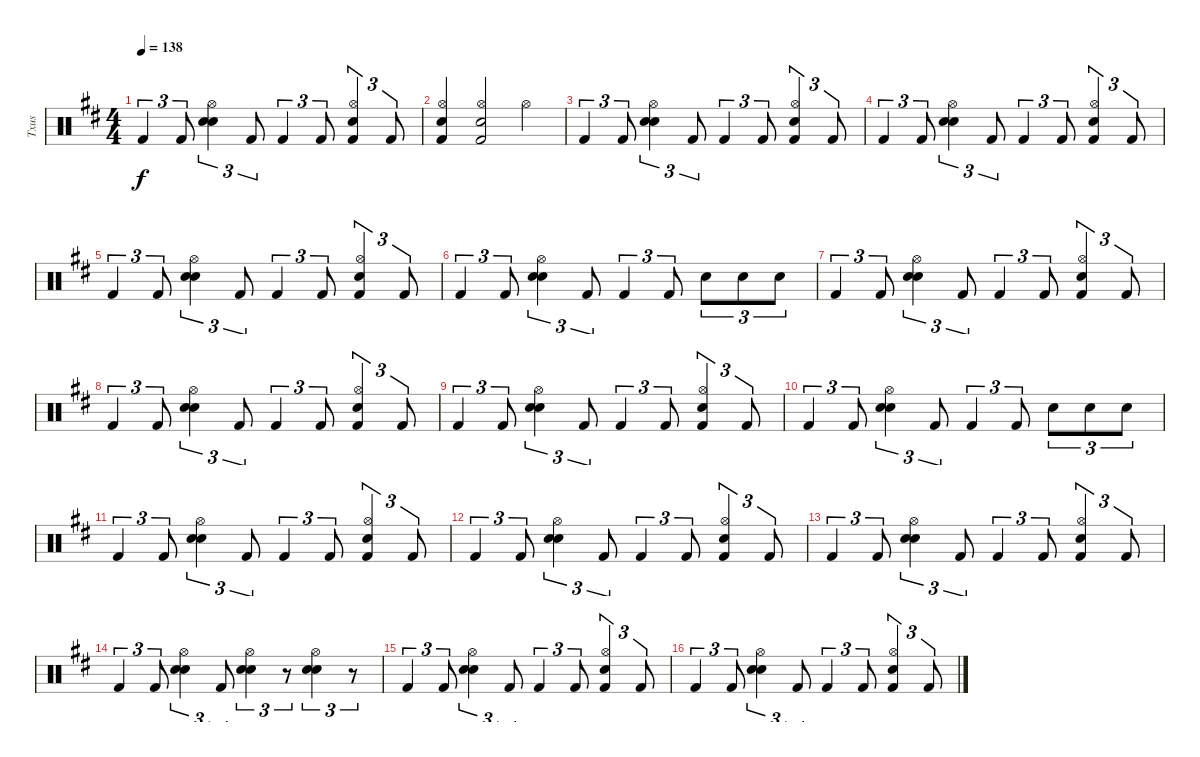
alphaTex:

\track ("Txus" "Txus") {instrument percussion}
\staff {score}
\articulation defaults
\ts (4 4)
\tempo 138
\clef neutral
\ks d "Kick (hit) 2".4{tu (3 2) dy f} "Kick (hit) 2".8{tu (3 2)}
("Hi-Hat (open)" "Electric Snare (hit)" "Snare (hit) 2").4{tu (3 2)} "Kick (hit) 2".8{tu (3 2)} "Kick (hit) 2".4{tu (3 2)} "Kick (hit) 2".8{tu (3 2)} ("Hi-Hat (open)" "Electric Snare (hit)" "Kick (hit) 2").4{tu (3 2)} "Kick (hit) 2".8{tu (3 2)} |
("Hi-Hat (open)" "Electric Snare (hit)" "Kick (hit) 2").4 ("Hi-Hat (open)" "Electric Snare (hit)" "Kick (hit) 2").2 "Hi-Hat (open)".4 |
"Kick (hit) 2".4{tu (3 2)} "Kick (hit) 2".8{tu (3 2)} ("Hi-Hat (open)" "Electric Snare (hit)" "Snare (hit) 2").4{tu (3 2)} "Kick (hit) 2".8{tu (3 2)} "Kick (hit) 2".4{tu (3 2)} "Kick (hit) 2".8{tu (3 2)} ("Hi-Hat (open)" "Electric Snare (hit)" "Kick (hit) 2").4{tu (3 2)} "Kick (hit) 2".8{tu (3 2)} |
"Kick (hit) 2".4{tu (3 2)} "Kick (hit) 2".8{tu (3 2)} ("Hi-Hat (open)" "Electric Snare (hit)" "Snare (hit) 2").4{tu (3 2)} "Kick (hit) 2".8{tu (3 2)} "Kick (hit) 2".4{tu (3 2)} "Kick (hit) 2".8{tu (3 2)} ("Hi-Hat (open)" "Electric Snare (hit)" "Kick (hit) 2").4{tu (3 2)} "Kick (hit) 2".8{tu (3 2)} |
"Kick (hit) 2".4{tu (3 2)} "Kick (hit) 2".8{tu (3 2)} ("Hi-Hat (open)" "Electric Snare (hit)" "Snare (hit) 2").4{tu (3 2)} "Kick (hit) 2".8{tu (3 2)} "Kick (hit) 2".4{tu (3 2)} "Kick (hit) 2".8{tu (3 2)} ("Hi-Hat (open)" "Electric Snare (hit)" "Kick (hit) 2").4{tu (3 2)} "Kick (hit) 2".8{tu (3 2)} |
"Kick (hit) 2".4{tu (3 2)} "Kick (hit) 2".8{tu (3 2)} ("Hi-Hat (open)" "Electric Snare (hit)" "Snare (hit) 2").4{tu (3 2)} "Kick (hit) 2".8{tu (3 2)} "Kick (hit) 2".4{tu (3 2)} "Kick (hit) 2".8{tu (3 2)} "Electric Snare (hit)".8{tu (3 2)} "Electric Snare (hit)".8{tu (3 2)} "Electric Snare (hit)".8{tu (3 2)} |
"Kick (hit) 2".4{tu (3 2)} "Kick (hit) 2".8{tu (3 2)} ("Hi-Hat (open)" "Electric Snare (hit)" "Snare (hit) 2").4{tu (3 2)} "Kick (hit) 2".8{tu (3 2)} "Kick (hit) 2".4{tu (3 2)} "Kick (hit) 2".8{tu (3 2)} ("Hi-Hat (open)" "Electric Snare (hit)" "Kick (hit) 2").4{tu (3 2)} "Kick (hit) 2".8{tu (3 2)} |
"Kick (hit) 2".4{tu (3 2)} "Kick (hit) 2".8{tu (3 2)} ("Hi-Hat (open)" "Electric Snare (hit)" "Snare (hit) 2").4{tu (3 2)} "Kick (hit) 2".8{tu (3 2)} "Kick (hit) 2".4{tu (3 2)} "Kick (hit) 2".8{tu (3 2)} ("Hi-Hat (open)" "Electric Snare (hit)" "Kick (hit) 2").4{tu (3 2)} "Kick (hit) 2".8{tu (3 2)} |
"Kick (hit) 2".4{tu (3 2)} "Kick (hit) 2".8{tu (3 2)} ("Hi-Hat (open)" "Electric Snare (hit)" "Snare (hit) 2").4{tu (3 2)} "Kick (hit) 2".8{tu (3 2)} "Kick (hit) 2".4{tu (3 2)} "Kick (hit) 2".8{tu (3 2)} ("Hi-Hat (open)" "Electric Snare (hit)" "Kick (hit) 2").4{tu (3 2)} "Kick (hit) 2".8{tu (3 2)} |
"Kick (hit) 2".4{tu (3 2)} "Kick (hit) 2".8{tu (3 2)} ("Hi-Hat (open)" "Electric Snare (hit)" "Snare (hit) 2").4{tu (3 2)} "Kick (hit) 2".8{tu (3 2)} "Kick (hit) 2".4{tu (3 2)} "Kick (hit) 2".8{tu (3 2)} "Electric Snare (hit)".8{tu (3 2)} "Electric Snare (hit)".8{tu (3 2)} "Electric Snare (hit)".8{tu (3 2)} |
"Kick (hit) 2".4{tu (3 2)} "Kick (hit) 2".8{tu (3 2)} ("Hi-Hat (open)" "Electric Snare (hit)" "Snare (hit) 2").4{tu (3 2)} "Kick (hit) 2".8{tu (3 2)} "Kick (hit) 2".4{tu (3 2)} "Kick (hit) 2".8{tu (3 2)} ("Hi-Hat (open)" "Electric Snare (hit)" "Kick (hit) 2").4{tu (3 2)} "Kick (hit) 2".8{tu (3 2)} |
"Kick (hit) 2".4{tu (3 2)} "Kick (hit) 2".8{tu (3 2)} ("Hi-Hat (open)" "Electric Snare (hit)" "Snare (hit) 2").4{tu (3 2)} "Kick (hit) 2".8{tu (3 2)} "Kick (hit) 2".4{tu (3 2)} "Kick (hit) 2".8{tu (3 2)} ("Hi-Hat (open)" "Electric Snare (hit)" "Kick (hit) 2").4{tu (3 2)} "Kick (hit) 2".8{tu (3 2)} |
"Kick (hit) 2".4{tu (3 2)} "Kick (hit) 2".8{tu (3 2)} ("Hi-Hat (open)" "Electric Snare (hit)" "Snare (hit) 2").4{tu (3 2)} "Kick (hit) 2".8{tu (3 2)} "Kick (hit) 2".4{tu (3 2)} "Kick (hit) 2".8{tu (3 2)} ("Hi-Hat (open)" "Electric Snare (hit)" "Kick (hit) 2").4{tu (3 2)} "Kick (hit) 2".8{tu (3 2)} |
"Kick (hit) 2".4{tu (3 2)} "Kick (hit) 2".8{tu (3 2)} ("Hi-Hat (open)" "Electric Snare (hit)" "Snare (hit) 2").4{tu (3 2)} "Kick (hit) 2".8{tu (3 2)} ("Hi-Hat (open)" "Electric Snare (hit)" "Snare (hit) 2").4{tu (3 2)} r.8{tu (3 2)} ("Hi-Hat (open)" "Electric Snare (hit)" "Snare (hit) 2").4{tu (3 2)} r.8{tu (3 2)} |
"Kick (hit) 2".4{tu (3 2)} "Kick (hit) 2".8{tu (3 2)} ("Hi-Hat (open)" "Electric Snare (hit)" "Snare (hit) 2").4{tu (3 2)} "Kick (hit) 2".8{tu (3 2)} "Kick (hit) 2".4{tu (3 2)} "Kick (hit) 2".8{tu (3 2)} ("Hi-Hat (open)" "Electric Snare (hit)" "Kick (hit) 2").4{tu (3 2)} "Kick (hit) 2".8{tu (3 2)} |
"Kick (hit) 2".4{tu (3 2)} "Kick (hit) 2".8{tu (3 2)} ("Hi-Hat (open)" "Electric Snare (hit)" "Snare (hit) 2").4{tu (3 2)} "Kick (hit) 2".8{tu (3 2)} "Kick (hit) 2".4{tu (3 2)} "Kick (hit) 2".8{tu (3 2)} ("Hi-Hat (open)" "Electric Snare (hit)" "Kick (hit) 2").4{tu (3 2)} "Kick (hit) 2".8{tu (3 2)}
